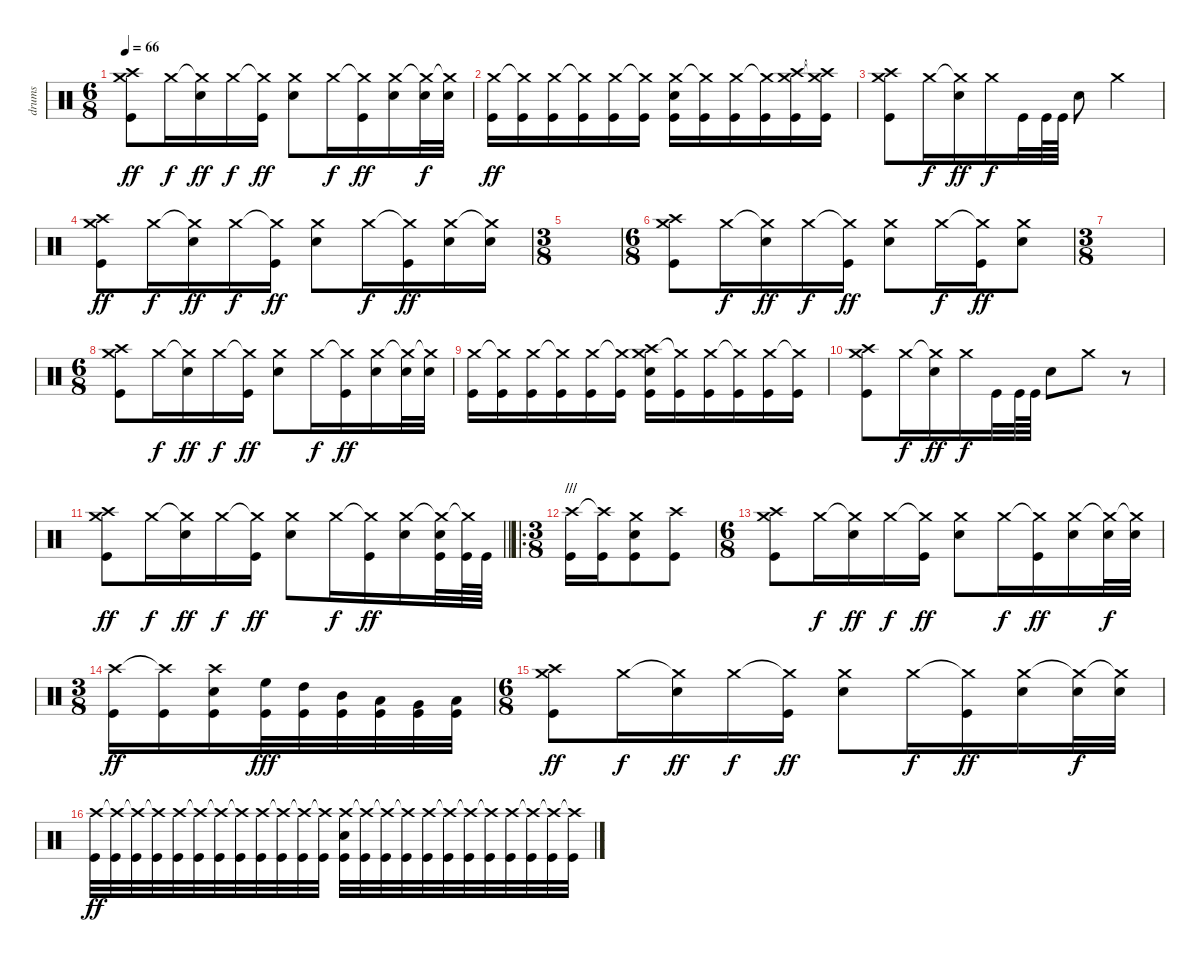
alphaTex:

\track ("drums" "drums") {instrument percussion}
\staff {score}
\articulation defaults
\ts (6 8)
\tempo 66
\clef neutral
\ks c
("Crash high (hit)" "Crash medium (hit)" "Kick (hit)").8{dy ff} "Crash medium (hit)".16{dy f} ("Crash medium (hit)"{t} "Electric Snare (hit)").16{dy ff} "Crash medium (hit)".16{dy f} ("Crash medium (hit)"{t} "Kick (hit)").16{dy ff} ("Crash medium (hit)" "Electric Snare (hit)").8 "Crash medium (hit)".16{dy f} ("Crash medium (hit)"{t} "Kick (hit)").16{dy ff} ("Crash medium (hit)" "Electric Snare (hit)").16 ("Crash medium (hit)"{t} "Electric Snare (hit)").32{dy f} ("Crash medium (hit)"{t} "Electric Snare (hit)").32 |
("Crash medium (hit)" "Kick (hit)").16{dy ff} ("Crash medium (hit)"{t} "Kick (hit)").16 ("Crash medium (hit)" "Kick (hit)").16 ("Crash medium (hit)"{t} "Kick (hit)").16 ("Crash medium (hit)" "Kick (hit)").16 ("Crash medium (hit)"{t} "Kick (hit)").16 ("Crash medium (hit)" "Electric Snare (hit)" "Kick (hit)").16 ("Crash medium (hit)"{t} "Kick (hit)").16 ("Crash medium (hit)" "Kick (hit)").16 ("Crash medium (hit)"{t} "Kick (hit)").16 ("Crash high (hit)" "Crash medium (hit)" "Kick (hit)").16 ("Crash high (hit)"{t} "Crash medium (hit)"{t} "Kick (hit)").16 |
("Crash high (hit)" "Crash medium (hit)" "Kick (hit)").8 "Crash medium (hit)".16{dy f} ("Crash medium (hit)"{t} "Electric Snare (hit)").16{dy ff} "Crash medium (hit)".16{dy f} "Kick (hit)".32 "Kick (hit)".64 "Kick (hit)".64 "Electric Snare (hit)".8 "Crash medium (hit)".4 |
("Crash high (hit)" "Crash medium (hit)" "Kick (hit)").8{dy ff} "Crash medium (hit)".16{dy f} ("Crash medium (hit)"{t} "Electric Snare (hit)").16{dy ff} "Crash medium (hit)".16{dy f} ("Crash medium (hit)"{t} "Kick (hit)").16{dy ff} ("Crash medium (hit)" "Electric Snare (hit)").8 "Crash medium (hit)".16{dy f} ("Crash medium (hit)"{t} "Kick (hit)").16{dy ff} ("Crash medium (hit)" "Electric Snare (hit)").16 ("Crash medium (hit)"{t} "Electric Snare (hit)").16 |
\ts (3 8)
|
\ts (6 8)
("Crash high (hit)" "Crash medium (hit)" "Kick (hit)").8 "Crash medium (hit)".16{dy f} ("Crash medium (hit)"{t} "Electric Snare (hit)").16{dy ff} "Crash medium (hit)".16{dy f} ("Crash medium (hit)"{t} "Kick (hit)").16{dy ff} ("Crash medium (hit)" "Electric Snare (hit)").8 "Crash medium (hit)".16{dy f} ("Crash medium (hit)"{t} "Kick (hit)").16{dy ff} ("Crash medium (hit)" "Electric Snare (hit)").8 |
\ts (3 8)
|
\ts (6 8)
("Crash high (hit)" "Crash medium (hit)" "Kick (hit)").8 "Crash medium (hit)".16{dy f} ("Crash medium (hit)"{t} "Electric Snare (hit)").16{dy ff} "Crash medium (hit)".16{dy f} ("Crash medium (hit)"{t} "Kick (hit)").16{dy ff} ("Crash medium (hit)" "Electric Snare (hit)").8 "Crash medium (hit)".16{dy f} ("Crash medium (hit)"{t} "Kick (hit)").16{dy ff} ("Crash medium (hit)" "Electric Snare (hit)").16 ("Crash medium (hit)"{t} "Electric Snare (hit)").32 ("Crash medium (hit)"{t} "Electric Snare (hit)").32 |
("Crash medium (hit)" "Kick (hit)").16 ("Crash medium (hit)"{t} "Kick (hit)").16 ("Crash medium (hit)" "Kick (hit)").16 ("Crash medium (hit)"{t} "Kick (hit)").16 ("Crash medium (hit)" "Kick (hit)").16 ("Crash medium (hit)"{t} "Kick (hit)").16 ("Crash high (hit)" "Crash medium (hit)" "Electric Snare (hit)" "Kick (hit)").16 ("Crash medium (hit)"{t} "Kick (hit)").16 ("Crash medium (hit)" "Kick (hit)").16 ("Crash medium (hit)"{t} "Kick (hit)").16 ("Crash medium (hit)" "Kick (hit)").16 ("Crash medium (hit)"{t} "Kick (hit)").16 |
("Crash high (hit)" "Crash medium (hit)" "Kick (hit)").8 "Crash medium (hit)".16{dy f} ("Crash medium (hit)"{t} "Electric Snare (hit)").16{dy ff} "Crash medium (hit)".16{dy f} "Kick (hit)".32 "Kick (hit)".64 "Kick (hit)".64 "Electric Snare (hit)".8 "Crash medium (hit)".8 r.8 |
\barLineRight lightlight
("Crash high (hit)" "Crash medium (hit)" "Kick (hit)").8{dy ff} "Crash medium (hit)".16{dy f} ("Crash medium (hit)"{t} "Electric Snare (hit)").16{dy ff} "Crash medium (hit)".16{dy f} ("Crash medium (hit)"{t} "Kick (hit)").16{dy ff} ("Crash medium (hit)" "Electric Snare (hit)").8 "Crash medium (hit)".16{dy f} ("Crash medium (hit)"{t} "Kick (hit)").16{dy ff} ("Crash medium (hit)" "Electric Snare (hit)").16 ("Crash medium (hit)"{t} "Electric Snare (hit)" "Kick (hit)").32 ("Crash medium (hit)"{t} "Kick (hit)").64 "Kick (hit)".64 |
\ro
\ts (3 8)
\section ("" "///")
("Crash high (hit)" "Kick (hit)").16 ("Crash high (hit)"{t} "Kick (hit)").16 ("Crash medium (hit)" "Electric Snare (hit)" "Kick (hit)").8 ("Crash high (hit)" "Kick (hit)").8 |
\ts (6 8)
("Crash high (hit)" "Crash medium (hit)" "Kick (hit)").8 "Crash medium (hit)".16{dy f} ("Crash medium (hit)"{t} "Electric Snare (hit)").16{dy ff} "Crash medium (hit)".16{dy f} ("Crash medium (hit)"{t} "Kick (hit)").16{dy ff} ("Crash medium (hit)" "Electric Snare (hit)").8 "Crash medium (hit)".16{dy f} ("Crash medium (hit)"{t} "Kick (hit)").16{dy ff} ("Crash medium (hit)" "Electric Snare (hit)").16 ("Crash medium (hit)"{t} "Electric Snare (hit)").32{dy f} ("Crash medium (hit)"{t} "Electric Snare (hit)").32 |
\ts (3 8)
("Crash high (hit)" "Kick (hit)").16{dy ff} ("Crash high (hit)"{t} "Kick (hit)").16 ("Crash high (hit)" "Electric Snare (hit)" "Kick (hit)").16 ("High Floor Tom (hit)" "Kick (hit)").32{dy fff} ("High Tom (hit)" "Kick (hit)").32 ("Mid Tom (hit)" "Kick (hit)").32 ("Low Tom (hit)" "Kick (hit)").32 ("Very Low Tom (hit)" "Kick (hit)").32 ("Low Floor Tom (hit)" "Kick (hit)").32 |
\ts (6 8)
("Crash high (hit)" "Crash medium (hit)" "Kick (hit)").8{dy ff} "Crash medium (hit)".16{dy f} ("Crash medium (hit)"{t} "Electric Snare (hit)").16{dy ff} "Crash medium (hit)".16{dy f} ("Crash medium (hit)"{t} "Kick (hit)").16{dy ff} ("Crash medium (hit)" "Electric Snare (hit)").8 "Crash medium (hit)".16{dy f} ("Crash medium (hit)"{t} "Kick (hit)").16{dy ff} ("Crash medium (hit)" "Electric Snare (hit)").16 ("Crash medium (hit)"{t} "Electric Snare (hit)").32{dy f} ("Crash medium (hit)"{t} "Electric Snare (hit)").32 |
("Crash high (hit)" "Kick (hit)").32{dy ff} ("Crash high (hit)"{t} "Kick (hit)").32 ("Crash high (hit)"{t} "Kick (hit)").32 ("Crash high (hit)"{t} "Kick (hit)").32 ("Crash high (hit)" "Kick (hit)").32 ("Crash high (hit)"{t} "Kick (hit)").32 ("Crash high (hit)"{t} "Kick (hit)").32 ("Crash high (hit)"{t} "Kick (hit)").32 ("Crash high (hit)" "Kick (hit)").32 ("Crash high (hit)"{t} "Kick (hit)").32 ("Crash high (hit)"{t} "Kick (hit)").32 ("Crash high (hit)"{t} "Kick (hit)").32 ("Crash high (hit)" "Electric Snare (hit)" "Kick (hit)").32 ("Crash high (hit)"{t} "Kick (hit)").32 ("Crash high (hit)"{t} "Kick (hit)").32 ("Crash high (hit)"{t} "Kick (hit)").32 ("Crash high (hit)" "Kick (hit)").32 ("Crash high (hit)"{t} "Kick (hit)").32 ("Crash high (hit)"{t} "Kick (hit)").32 ("Crash high (hit)"{t} "Kick (hit)").32 ("Crash high (hit)" "Kick (hit)").32 ("Crash high (hit)"{t} "Kick (hit)").32 ("Crash high (hit)"{t} "Kick (hit)").32 ("Crash high (hit)"{t} "Kick (hit)").32
